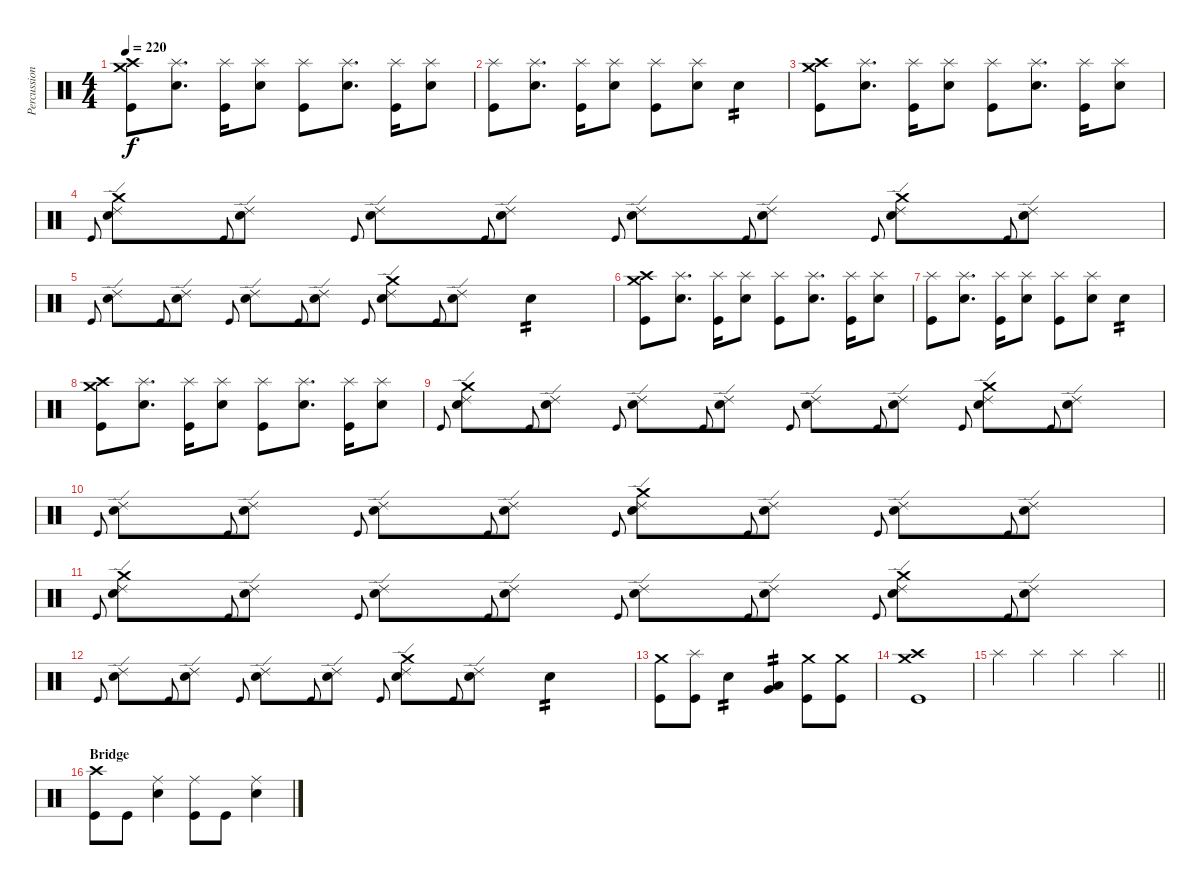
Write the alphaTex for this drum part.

\track ("Percussion" "Percussion") {instrument percussion}
\staff {score}
\articulation defaults
\ts (4 4)
\tempo 220
\clef neutral
\ks c
("Crash medium (hit)" "Crash high (hit)" "Kick (hit)").8{dy f} ("Splash (hit)" "Snare (hit) 2").8{d} ("Splash (hit)" "Kick (hit)").16 ("Splash (hit)" "Snare (hit) 2").8 ("Splash (hit)" "Kick (hit)").8 ("Splash (hit)" "Snare (hit) 2").8{d} ("Splash (hit)" "Kick (hit)").16 ("Splash (hit)" "Snare (hit) 2").8 |
("Splash (hit)" "Kick (hit)").8 ("Splash (hit)" "Snare (hit) 2").8{d} ("Splash (hit)" "Kick (hit)").16 ("Splash (hit)" "Snare (hit) 2").8 ("Splash (hit)" "Kick (hit)").8 ("Splash (hit)" "Snare (hit) 2").8 "Snare (hit) 2".4{tp 2} |
("Crash high (hit)" "Crash medium (hit)" "Kick (hit)").8 ("Splash (hit)" "Snare (hit) 2").8{d} ("Splash (hit)" "Kick (hit)").16 ("Splash (hit)" "Snare (hit) 2").8 ("Splash (hit)" "Kick (hit)").8 ("Splash (hit)" "Snare (hit) 2").8{d} ("Splash (hit)" "Kick (hit)").16 ("Splash (hit)" "Snare (hit) 2").8 |
"Kick (hit)".8{gr onbeat} ("Crash medium (hit)" "Ride (edge) 2" "Snare (hit) 2").8 "Kick (hit)".8{gr onbeat} ("Ride (edge) 2" "Snare (hit) 2").8 "Kick (hit)".8{gr onbeat} ("Ride (edge) 2" "Snare (hit) 2").8 "Kick (hit)".8{gr onbeat} ("Ride (edge) 2" "Snare (hit) 2").8 "Kick (hit)".8{gr onbeat} ("Ride (edge) 2" "Snare (hit) 2").8 "Kick (hit)".8{gr onbeat} ("Ride (edge) 2" "Snare (hit) 2").8 "Kick (hit)".8{gr onbeat} ("Crash medium (hit)" "Ride (edge) 2" "Snare (hit) 2").8 "Kick (hit)".8{gr onbeat} ("Ride (edge) 2" "Snare (hit) 2").8 |
"Kick (hit)".8{gr onbeat} ("Ride (edge) 2" "Snare (hit) 2").8 "Kick (hit)".8{gr onbeat} ("Ride (edge) 2" "Snare (hit) 2").8 "Kick (hit)".8{gr onbeat} ("Ride (edge) 2" "Snare (hit) 2").8 "Kick (hit)".8{gr onbeat} ("Ride (edge) 2" "Snare (hit) 2").8 "Kick (hit)".8{gr onbeat} ("Crash medium (hit)" "Ride (edge) 2" "Snare (hit) 2").8 "Kick (hit)".8{gr onbeat} ("Ride (edge) 2" "Snare (hit) 2").8 "Snare (hit) 2".4{tp 2} |
("Crash medium (hit)" "Crash high (hit)" "Kick (hit)").8 ("Splash (hit)" "Snare (hit) 2").8{d} ("Splash (hit)" "Kick (hit)").16 ("Splash (hit)" "Snare (hit) 2").8 ("Splash (hit)" "Kick (hit)").8 ("Splash (hit)" "Snare (hit) 2").8{d} ("Splash (hit)" "Kick (hit)").16 ("Splash (hit)" "Snare (hit) 2").8 |
("Splash (hit)" "Kick (hit)").8 ("Splash (hit)" "Snare (hit) 2").8{d} ("Splash (hit)" "Kick (hit)").16 ("Splash (hit)" "Snare (hit) 2").8 ("Splash (hit)" "Kick (hit)").8 ("Splash (hit)" "Snare (hit) 2").8 "Snare (hit) 2".4{tp 2} |
("Crash high (hit)" "Crash medium (hit)" "Kick (hit)").8 ("Splash (hit)" "Snare (hit) 2").8{d} ("Splash (hit)" "Kick (hit)").16 ("Splash (hit)" "Snare (hit) 2").8 ("Splash (hit)" "Kick (hit)").8 ("Splash (hit)" "Snare (hit) 2").8{d} ("Splash (hit)" "Kick (hit)").16 ("Splash (hit)" "Snare (hit) 2").8 |
"Kick (hit)".8{gr onbeat} ("Crash medium (hit)" "Ride (edge) 2" "Snare (hit) 2").8 "Kick (hit)".8{gr onbeat} ("Ride (edge) 2" "Snare (hit) 2").8 "Kick (hit)".8{gr onbeat} ("Ride (edge) 2" "Snare (hit) 2").8 "Kick (hit)".8{gr onbeat} ("Ride (edge) 2" "Snare (hit) 2").8 "Kick (hit)".8{gr onbeat} ("Ride (edge) 2" "Snare (hit) 2").8 "Kick (hit)".8{gr onbeat} ("Ride (edge) 2" "Snare (hit) 2").8 "Kick (hit)".8{gr onbeat} ("Crash medium (hit)" "Ride (edge) 2" "Snare (hit) 2").8 "Kick (hit)".8{gr onbeat} ("Ride (edge) 2" "Snare (hit) 2").8 |
"Kick (hit)".8{gr onbeat} ("Ride (edge) 2" "Snare (hit) 2").8 "Kick (hit)".8{gr onbeat} ("Ride (edge) 2" "Snare (hit) 2").8 "Kick (hit)".8{gr onbeat} ("Ride (edge) 2" "Snare (hit) 2").8 "Kick (hit)".8{gr onbeat} ("Ride (edge) 2" "Snare (hit) 2").8 "Kick (hit)".8{gr onbeat} ("Crash medium (hit)" "Ride (edge) 2" "Snare (hit) 2").8 "Kick (hit)".8{gr onbeat} ("Ride (edge) 2" "Snare (hit) 2").8 "Kick (hit)".8{gr onbeat} ("Ride (edge) 2" "Snare (hit) 2").8 "Kick (hit)".8{gr onbeat} ("Ride (edge) 2" "Snare (hit) 2").8 |
"Kick (hit)".8{gr onbeat} ("Crash medium (hit)" "Ride (edge) 2" "Snare (hit) 2").8 "Kick (hit)".8{gr onbeat} ("Ride (edge) 2" "Snare (hit) 2").8 "Kick (hit)".8{gr onbeat} ("Ride (edge) 2" "Snare (hit) 2").8 "Kick (hit)".8{gr onbeat} ("Ride (edge) 2" "Snare (hit) 2").8 "Kick (hit)".8{gr onbeat} ("Ride (edge) 2" "Snare (hit) 2").8 "Kick (hit)".8{gr onbeat} ("Ride (edge) 2" "Snare (hit) 2").8 "Kick (hit)".8{gr onbeat} ("Crash medium (hit)" "Ride (edge) 2" "Snare (hit) 2").8 "Kick (hit)".8{gr onbeat} ("Ride (edge) 2" "Snare (hit) 2").8 |
"Kick (hit)".8{gr onbeat} ("Ride (edge) 2" "Snare (hit) 2").8 "Kick (hit)".8{gr onbeat} ("Ride (edge) 2" "Snare (hit) 2").8 "Kick (hit)".8{gr onbeat} ("Ride (edge) 2" "Snare (hit) 2").8 "Kick (hit)".8{gr onbeat} ("Ride (edge) 2" "Snare (hit) 2").8 "Kick (hit)".8{gr onbeat} ("Crash medium (hit)" "Ride (edge) 2" "Snare (hit) 2").8 "Kick (hit)".8{gr onbeat} ("Ride (edge) 2" "Snare (hit) 2").8 "Snare (hit) 2".4{tp 2} |
("Crash medium (hit)" "Kick (hit)").8 ("Splash (hit)" "Kick (hit)").8 "Snare (hit) 2".4{tp 2} ("Very Low Tom (hit)" "Low Tom (hit)").4{tp 2} ("Crash medium (hit)" "Kick (hit)").8 ("Crash medium (hit)" "Kick (hit)").8 |
("Crash high (hit)" "Crash medium (hit)" "Kick (hit)").1 |
\barLineRight lightlight "Splash (hit)".4 "Splash (hit)".4 "Splash (hit)".4 "Splash (hit)".4
|
\section ("" "Bridge")
("Crash high (hit)" "Kick (hit)").8 "Kick (hit)".8 ("Ride (middle)" "Snare (hit) 2").4 ("Ride (middle)" "Kick (hit)").8 "Kick (hit)".8 ("Ride (middle)" "Snare (hit) 2").4
